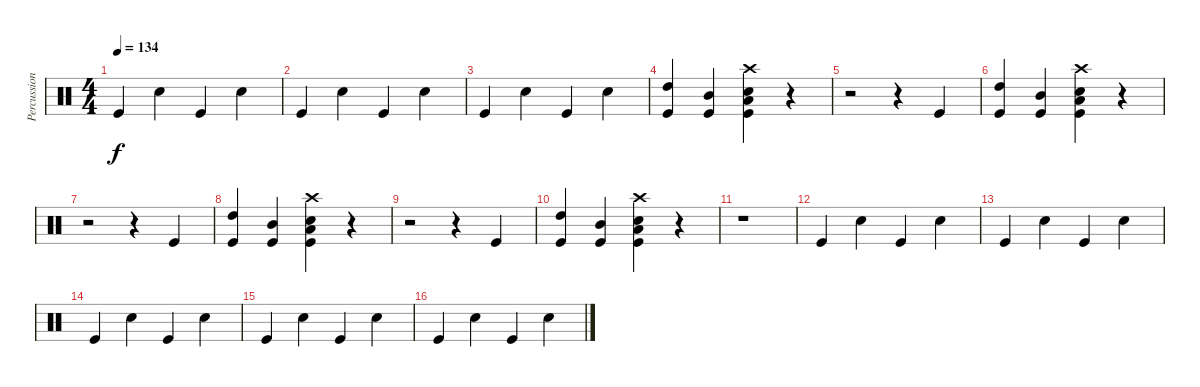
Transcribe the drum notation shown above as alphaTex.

\track ("Percussions" "Percussion") {instrument percussion}
\staff {score}
\articulation defaults
\ts (4 4)
\tempo 134
\clef neutral
\ks c "Kick (hit)".4{dy f} "Snare (hit) 2".4 "Kick (hit)".4 "Snare (hit) 2".4
|
"Kick (hit)".4 "Snare (hit) 2".4 "Kick (hit)".4 "Snare (hit) 2".4 |
"Kick (hit)".4 "Snare (hit) 2".4 "Kick (hit)".4 "Snare (hit) 2".4 |
("High Tom (hit)" "Kick (hit)").4 ("Mid Tom (hit)" "Kick (hit)").4 ("Low Floor Tom (hit)" "Crash high (hit)" "Snare (hit) 2" "Kick (hit)").4 r.4 |
r.2 r.4 "Kick (hit)".4 |
("High Tom (hit)" "Kick (hit)").4 ("Mid Tom (hit)" "Kick (hit)").4 ("Low Floor Tom (hit)" "Crash high (hit)" "Snare (hit) 2" "Kick (hit)").4 r.4 |
r.2 r.4 "Kick (hit)".4 |
("High Tom (hit)" "Kick (hit)").4 ("Mid Tom (hit)" "Kick (hit)").4 ("Low Floor Tom (hit)" "Crash high (hit)" "Snare (hit) 2" "Kick (hit)").4 r.4 |
r.2 r.4 "Kick (hit)".4 |
("High Tom (hit)" "Kick (hit)").4 ("Mid Tom (hit)" "Kick (hit)").4 ("Low Floor Tom (hit)" "Crash high (hit)" "Snare (hit) 2" "Kick (hit)").4 r.4 |
r.1 |
"Kick (hit)".4 "Snare (hit) 2".4 "Kick (hit)".4 "Snare (hit) 2".4 |
"Kick (hit)".4 "Snare (hit) 2".4 "Kick (hit)".4 "Snare (hit) 2".4 |
"Kick (hit)".4 "Snare (hit) 2".4 "Kick (hit)".4 "Snare (hit) 2".4 |
"Kick (hit)".4 "Snare (hit) 2".4 "Kick (hit)".4 "Snare (hit) 2".4 |
"Kick (hit)".4 "Snare (hit) 2".4 "Kick (hit)".4 "Snare (hit) 2".4
